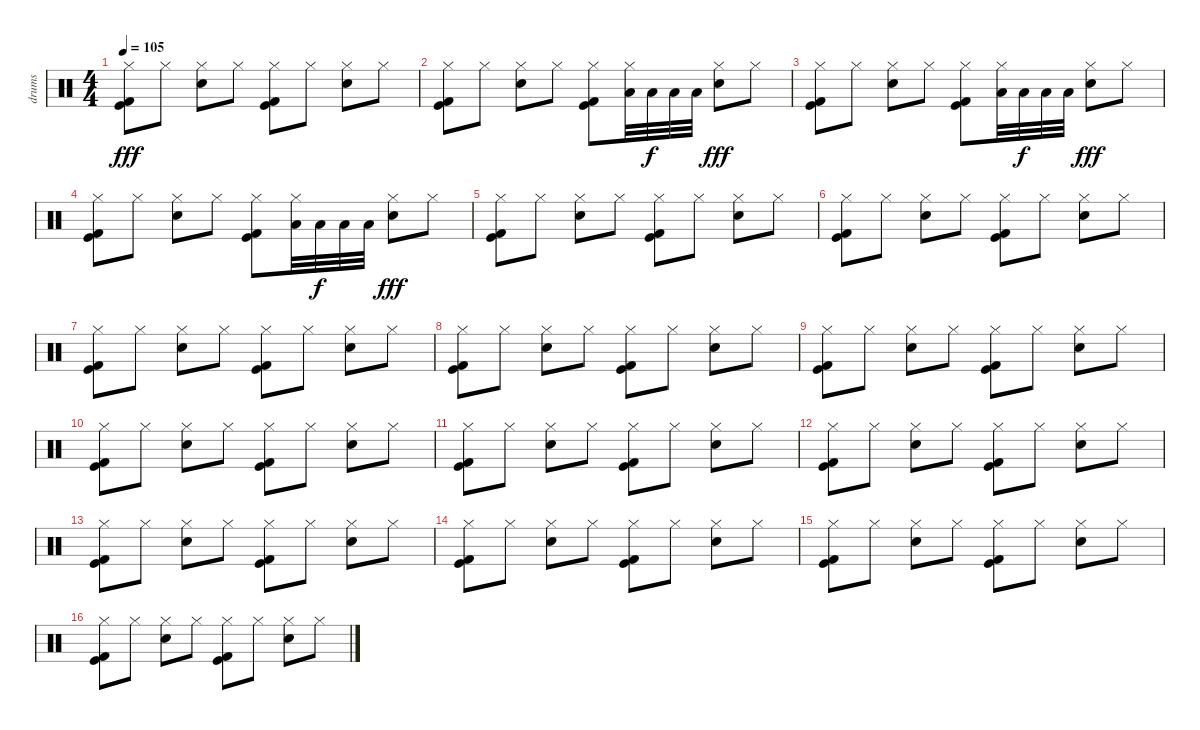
\track ("drums" "drums") {instrument percussion}
\staff {score}
\articulation defaults
\ts (4 4)
\tempo 105
\clef neutral
\ks c
("Kick (hit)" "Kick (hit) 2" "Hi-Hat (closed)").8{dy fff} "Hi-Hat (closed)".8 ("Hi-Hat (closed)" "Electric Snare (hit)").8 "Hi-Hat (closed)".8 ("Kick (hit)" "Kick (hit) 2" "Hi-Hat (closed)").8 "Hi-Hat (closed)".8 ("Hi-Hat (closed)" "Electric Snare (hit)").8 "Hi-Hat (closed)".8 |
("Kick (hit)" "Kick (hit) 2" "Hi-Hat (closed)").8 "Hi-Hat (closed)".8 ("Hi-Hat (closed)" "Electric Snare (hit)").8 "Hi-Hat (closed)".8 ("Kick (hit)" "Kick (hit) 2" "Hi-Hat (closed)").8 ("Hi-Hat (closed)" "Low Floor Tom (hit)").32 "Low Floor Tom (hit)".32{dy f} "Low Floor Tom (hit)".32 "Low Floor Tom (hit)".32 ("Hi-Hat (closed)" "Electric Snare (hit)").8{dy fff} "Hi-Hat (closed)".8 |
("Kick (hit)" "Kick (hit) 2" "Hi-Hat (closed)").8 "Hi-Hat (closed)".8 ("Hi-Hat (closed)" "Electric Snare (hit)").8 "Hi-Hat (closed)".8 ("Kick (hit)" "Kick (hit) 2" "Hi-Hat (closed)").8 ("Hi-Hat (closed)" "Low Floor Tom (hit)").32 "Low Floor Tom (hit)".32{dy f} "Low Floor Tom (hit)".32 "Low Floor Tom (hit)".32 ("Hi-Hat (closed)" "Electric Snare (hit)").8{dy fff} "Hi-Hat (closed)".8 |
("Kick (hit)" "Kick (hit) 2" "Hi-Hat (closed)").8 "Hi-Hat (closed)".8 ("Hi-Hat (closed)" "Electric Snare (hit)").8 "Hi-Hat (closed)".8 ("Kick (hit)" "Kick (hit) 2" "Hi-Hat (closed)").8 ("Hi-Hat (closed)" "Low Floor Tom (hit)").32 "Low Floor Tom (hit)".32{dy f} "Low Floor Tom (hit)".32 "Low Floor Tom (hit)".32 ("Hi-Hat (closed)" "Electric Snare (hit)").8{dy fff} "Hi-Hat (closed)".8 |
("Kick (hit)" "Kick (hit) 2" "Hi-Hat (closed)").8 "Hi-Hat (closed)".8 ("Hi-Hat (closed)" "Electric Snare (hit)").8 "Hi-Hat (closed)".8 ("Kick (hit)" "Kick (hit) 2" "Hi-Hat (closed)").8 "Hi-Hat (closed)".8 ("Hi-Hat (closed)" "Electric Snare (hit)").8 "Hi-Hat (closed)".8 |
("Kick (hit)" "Kick (hit) 2" "Hi-Hat (closed)").8 "Hi-Hat (closed)".8 ("Hi-Hat (closed)" "Electric Snare (hit)").8 "Hi-Hat (closed)".8 ("Kick (hit)" "Kick (hit) 2" "Hi-Hat (closed)").8 "Hi-Hat (closed)".8 ("Hi-Hat (closed)" "Electric Snare (hit)").8 "Hi-Hat (closed)".8 |
("Kick (hit)" "Kick (hit) 2" "Hi-Hat (closed)").8 "Hi-Hat (closed)".8 ("Hi-Hat (closed)" "Electric Snare (hit)").8 "Hi-Hat (closed)".8 ("Kick (hit)" "Kick (hit) 2" "Hi-Hat (closed)").8 "Hi-Hat (closed)".8 ("Hi-Hat (closed)" "Electric Snare (hit)").8 "Hi-Hat (closed)".8 |
("Kick (hit)" "Kick (hit) 2" "Hi-Hat (closed)").8 "Hi-Hat (closed)".8 ("Hi-Hat (closed)" "Electric Snare (hit)").8 "Hi-Hat (closed)".8 ("Kick (hit)" "Kick (hit) 2" "Hi-Hat (closed)").8 "Hi-Hat (closed)".8 ("Hi-Hat (closed)" "Electric Snare (hit)").8 "Hi-Hat (closed)".8 |
("Kick (hit)" "Kick (hit) 2" "Hi-Hat (closed)").8 "Hi-Hat (closed)".8 ("Hi-Hat (closed)" "Electric Snare (hit)").8 "Hi-Hat (closed)".8 ("Kick (hit)" "Kick (hit) 2" "Hi-Hat (closed)").8 "Hi-Hat (closed)".8 ("Hi-Hat (closed)" "Electric Snare (hit)").8 "Hi-Hat (closed)".8 |
("Kick (hit)" "Kick (hit) 2" "Hi-Hat (closed)").8 "Hi-Hat (closed)".8 ("Hi-Hat (closed)" "Electric Snare (hit)").8 "Hi-Hat (closed)".8 ("Kick (hit)" "Kick (hit) 2" "Hi-Hat (closed)").8 "Hi-Hat (closed)".8 ("Hi-Hat (closed)" "Electric Snare (hit)").8 "Hi-Hat (closed)".8 |
("Kick (hit)" "Kick (hit) 2" "Hi-Hat (closed)").8 "Hi-Hat (closed)".8 ("Hi-Hat (closed)" "Electric Snare (hit)").8 "Hi-Hat (closed)".8 ("Kick (hit)" "Kick (hit) 2" "Hi-Hat (closed)").8 "Hi-Hat (closed)".8 ("Hi-Hat (closed)" "Electric Snare (hit)").8 "Hi-Hat (closed)".8 |
("Kick (hit)" "Kick (hit) 2" "Hi-Hat (closed)").8 "Hi-Hat (closed)".8 ("Hi-Hat (closed)" "Electric Snare (hit)").8 "Hi-Hat (closed)".8 ("Kick (hit)" "Kick (hit) 2" "Hi-Hat (closed)").8 "Hi-Hat (closed)".8 ("Hi-Hat (closed)" "Electric Snare (hit)").8 "Hi-Hat (closed)".8 |
("Hi-Hat (closed)" "Kick (hit)" "Kick (hit) 2").8 "Hi-Hat (closed)".8 ("Hi-Hat (closed)" "Electric Snare (hit)").8 "Hi-Hat (closed)".8 ("Hi-Hat (closed)" "Kick (hit)" "Kick (hit) 2").8 "Hi-Hat (closed)".8 ("Hi-Hat (closed)" "Electric Snare (hit)").8 "Hi-Hat (closed)".8 |
("Kick (hit)" "Kick (hit) 2" "Hi-Hat (closed)").8 "Hi-Hat (closed)".8 ("Hi-Hat (closed)" "Electric Snare (hit)").8 "Hi-Hat (closed)".8 ("Kick (hit)" "Kick (hit) 2" "Hi-Hat (closed)").8 "Hi-Hat (closed)".8 ("Hi-Hat (closed)" "Electric Snare (hit)").8 "Hi-Hat (closed)".8 |
("Hi-Hat (closed)" "Kick (hit)" "Kick (hit) 2").8 "Hi-Hat (closed)".8 ("Hi-Hat (closed)" "Electric Snare (hit)").8 "Hi-Hat (closed)".8 ("Hi-Hat (closed)" "Kick (hit)" "Kick (hit) 2").8 "Hi-Hat (closed)".8 ("Hi-Hat (closed)" "Electric Snare (hit)").8 "Hi-Hat (closed)".8 |
("Kick (hit)" "Kick (hit) 2" "Hi-Hat (closed)").8 "Hi-Hat (closed)".8 ("Hi-Hat (closed)" "Electric Snare (hit)").8 "Hi-Hat (closed)".8 ("Kick (hit)" "Kick (hit) 2" "Hi-Hat (closed)").8 "Hi-Hat (closed)".8 ("Hi-Hat (closed)" "Electric Snare (hit)").8 "Hi-Hat (closed)".8
